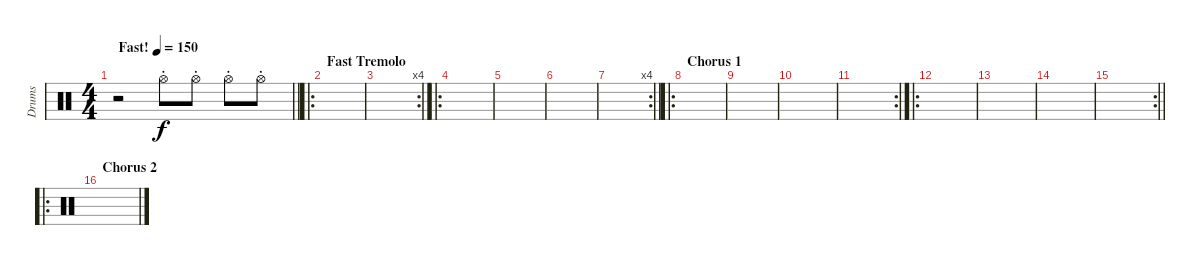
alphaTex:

\track ("Drums" "Drums") {instrument percussion}
\staff {score}
\articulation defaults
\ts (4 4)
\tempo (150 "Fast!")
\clef neutral
\barLineRight lightlight
\ks c
r.2{dy f} "Hi-Hat (open)"{st}.8 "Hi-Hat (open)"{st}.8 "Hi-Hat (open)"{st}.8 "Hi-Hat (open)"{st}.8 |
\ro
\section ("" "Fast Tremolo")
|
\rc 4
|
\ro
|
|
|
\rc 4
\barLineRight lightlight
|
\ro
\section ("" "Chorus 1")
|
|
|
\rc 2
|
\ro
|
|
|
\rc 2
\barLineRight lightlight
|
\ro
\section ("" "Chorus 2")
